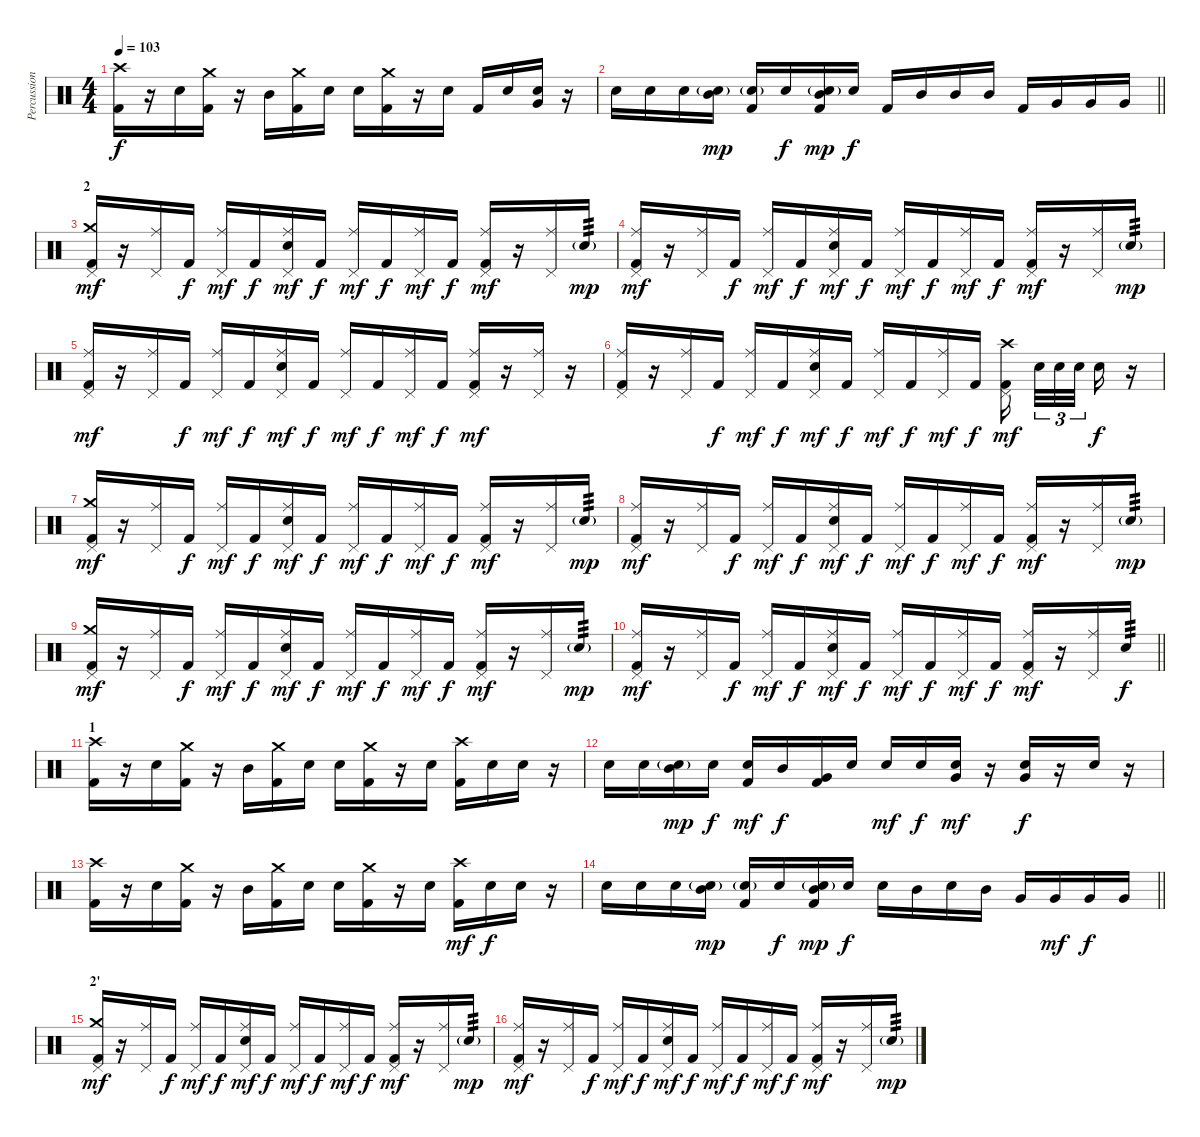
\track ("Percussion" "Percussion") {instrument percussion}
\staff {score}
\articulation defaults
\ts (4 4)
\tempo 103
\clef neutral
\ks c
("Crash high (hit)" "Kick (hit) 2").16{dy f} r.16 "Snare (hit) 2".16 ("Crash medium (hit)" "Kick (hit) 2").16 r.16 "Mid Tom (hit)".16 ("Crash medium (hit)" "Kick (hit) 2").16 "Snare (hit) 2".16 "Snare (hit) 2".16 ("Crash medium (hit)" "Kick (hit) 2").16 r.16 "Snare (hit) 2".16 "Kick (hit) 2".16 "Snare (hit) 2".16 ("Snare (hit) 2" "Very Low Tom (hit)").16 r.16 |
\barLineRight lightlight "Snare (hit) 2".16 "Snare (hit) 2".16 "Snare (hit) 2".16
("Mid Tom (hit)" "Snare (hit) 2"{g}).16{dy mp} ("Snare (hit) 2"{g} "Kick (hit) 2").16 "Snare (hit) 2".16{dy f} ("Mid Tom (hit)" "Snare (hit) 2"{g} "Kick (hit) 2").16{dy mp} "Snare (hit) 2".16{dy f} "Kick (hit) 2".16 "Mid Tom (hit)".16 "Mid Tom (hit)".16 "Mid Tom (hit)".16 "Kick (hit) 2".16 "Very Low Tom (hit)".16 "Very Low Tom (hit)".16 "Very Low Tom (hit)".16 |
\section ("" "2")
("Crash medium (hit)" "Pedal Hi-Hat (hit)" "Kick (hit) 2").16{dy mf} r.16 ("Ride (middle)" "Pedal Hi-Hat (hit)").16 "Kick (hit) 2".16{dy f} ("Ride (middle)" "Pedal Hi-Hat (hit)").16{dy mf} "Kick (hit) 2".16{dy f} ("Ride (middle)" "Pedal Hi-Hat (hit)" "Snare (hit) 2").16{dy mf} "Kick (hit) 2".16{dy f} ("Ride (middle)" "Pedal Hi-Hat (hit)").16{dy mf} "Kick (hit) 2".16{dy f} ("Ride (middle)" "Pedal Hi-Hat (hit)").16{dy mf} "Kick (hit) 2".16{dy f} ("Ride (middle)" "Pedal Hi-Hat (hit)" "Kick (hit) 2").16{dy mf} r.16 ("Ride (middle)" "Pedal Hi-Hat (hit)").16 "Snare (hit) 2"{g}.16{tp 3 dy mp} |
("Ride (middle)" "Pedal Hi-Hat (hit)" "Kick (hit) 2").16{dy mf} r.16 ("Ride (middle)" "Pedal Hi-Hat (hit)").16 "Kick (hit) 2".16{dy f} ("Ride (middle)" "Pedal Hi-Hat (hit)").16{dy mf} "Kick (hit) 2".16{dy f} ("Ride (middle)" "Pedal Hi-Hat (hit)" "Snare (hit) 2").16{dy mf} "Kick (hit) 2".16{dy f} ("Ride (middle)" "Pedal Hi-Hat (hit)").16{dy mf} "Kick (hit) 2".16{dy f} ("Ride (middle)" "Pedal Hi-Hat (hit)").16{dy mf} "Kick (hit) 2".16{dy f} ("Ride (middle)" "Pedal Hi-Hat (hit)" "Kick (hit) 2").16{dy mf} r.16 ("Ride (middle)" "Pedal Hi-Hat (hit)").16 "Snare (hit) 2"{g}.16{tp 3 dy mp} |
("Ride (middle)" "Pedal Hi-Hat (hit)" "Kick (hit) 2").16{dy mf} r.16 ("Ride (middle)" "Pedal Hi-Hat (hit)").16 "Kick (hit) 2".16{dy f} ("Ride (middle)" "Pedal Hi-Hat (hit)").16{dy mf} "Kick (hit) 2".16{dy f} ("Ride (middle)" "Pedal Hi-Hat (hit)" "Snare (hit) 2").16{dy mf} "Kick (hit) 2".16{dy f} ("Ride (middle)" "Pedal Hi-Hat (hit)").16{dy mf} "Kick (hit) 2".16{dy f} ("Ride (middle)" "Pedal Hi-Hat (hit)").16{dy mf} "Kick (hit) 2".16{dy f} ("Ride (middle)" "Pedal Hi-Hat (hit)" "Kick (hit) 2").16{dy mf} r.16 ("Ride (middle)" "Pedal Hi-Hat (hit)").16 r.16 |
("Ride (middle)" "Pedal Hi-Hat (hit)" "Kick (hit) 2").16 r.16 ("Ride (middle)" "Pedal Hi-Hat (hit)").16 "Kick (hit) 2".16{dy f} ("Ride (middle)" "Pedal Hi-Hat (hit)").16{dy mf} "Kick (hit) 2".16{dy f} ("Ride (middle)" "Pedal Hi-Hat (hit)" "Snare (hit) 2").16{dy mf} "Kick (hit) 2".16{dy f} ("Ride (middle)" "Pedal Hi-Hat (hit)").16{dy mf} "Kick (hit) 2".16{dy f} ("Ride (middle)" "Pedal Hi-Hat (hit)").16{dy mf} "Kick (hit) 2".16{dy f} ("Crash high (hit)" "Pedal Hi-Hat (hit)" "Kick (hit) 2").16{dy mf beam splitsecondary} "Snare (hit) 2".32{tu (3 2)} "Snare (hit) 2".32{tu (3 2)} "Snare (hit) 2".32{tu (3 2) beam splitsecondary} "Snare (hit) 2".16{dy f} r.16 |
("Crash medium (hit)" "Pedal Hi-Hat (hit)" "Kick (hit) 2").16{dy mf} r.16 ("Ride (middle)" "Pedal Hi-Hat (hit)").16 "Kick (hit) 2".16{dy f} ("Ride (middle)" "Pedal Hi-Hat (hit)").16{dy mf} "Kick (hit) 2".16{dy f} ("Ride (middle)" "Pedal Hi-Hat (hit)" "Snare (hit) 2").16{dy mf} "Kick (hit) 2".16{dy f} ("Ride (middle)" "Pedal Hi-Hat (hit)").16{dy mf} "Kick (hit) 2".16{dy f} ("Ride (middle)" "Pedal Hi-Hat (hit)").16{dy mf} "Kick (hit) 2".16{dy f} ("Ride (middle)" "Pedal Hi-Hat (hit)" "Kick (hit) 2").16{dy mf} r.16 ("Ride (middle)" "Pedal Hi-Hat (hit)").16 "Snare (hit) 2"{g}.16{tp 3 dy mp} |
("Ride (middle)" "Pedal Hi-Hat (hit)" "Kick (hit) 2").16{dy mf} r.16 ("Ride (middle)" "Pedal Hi-Hat (hit)").16 "Kick (hit) 2".16{dy f} ("Ride (middle)" "Pedal Hi-Hat (hit)").16{dy mf} "Kick (hit) 2".16{dy f} ("Ride (middle)" "Pedal Hi-Hat (hit)" "Snare (hit) 2").16{dy mf} "Kick (hit) 2".16{dy f} ("Ride (middle)" "Pedal Hi-Hat (hit)").16{dy mf} "Kick (hit) 2".16{dy f} ("Ride (middle)" "Pedal Hi-Hat (hit)").16{dy mf} "Kick (hit) 2".16{dy f} ("Ride (middle)" "Pedal Hi-Hat (hit)" "Kick (hit) 2").16{dy mf} r.16 ("Ride (middle)" "Pedal Hi-Hat (hit)").16 "Snare (hit) 2"{g}.16{tp 3 dy mp} |
("Crash medium (hit)" "Pedal Hi-Hat (hit)" "Kick (hit) 2").16{dy mf} r.16 ("Ride (middle)" "Pedal Hi-Hat (hit)").16 "Kick (hit) 2".16{dy f} ("Ride (middle)" "Pedal Hi-Hat (hit)").16{dy mf} "Kick (hit) 2".16{dy f} ("Ride (middle)" "Pedal Hi-Hat (hit)" "Snare (hit) 2").16{dy mf} "Kick (hit) 2".16{dy f} ("Ride (middle)" "Pedal Hi-Hat (hit)").16{dy mf} "Kick (hit) 2".16{dy f} ("Ride (middle)" "Pedal Hi-Hat (hit)").16{dy mf} "Kick (hit) 2".16{dy f} ("Ride (middle)" "Pedal Hi-Hat (hit)" "Kick (hit) 2").16{dy mf} r.16 ("Ride (middle)" "Pedal Hi-Hat (hit)").16 "Snare (hit) 2"{g}.16{tp 3 dy mp} |
\barLineRight lightlight
("Ride (middle)" "Pedal Hi-Hat (hit)" "Kick (hit) 2").16{dy mf} r.16 ("Ride (middle)" "Pedal Hi-Hat (hit)").16 "Kick (hit) 2".16{dy f} ("Ride (middle)" "Pedal Hi-Hat (hit)").16{dy mf} "Kick (hit) 2".16{dy f} ("Ride (middle)" "Pedal Hi-Hat (hit)" "Snare (hit) 2").16{dy mf} "Kick (hit) 2".16{dy f} ("Ride (middle)" "Pedal Hi-Hat (hit)").16{dy mf} "Kick (hit) 2".16{dy f} ("Ride (middle)" "Pedal Hi-Hat (hit)").16{dy mf} "Kick (hit) 2".16{dy f} ("Ride (middle)" "Pedal Hi-Hat (hit)" "Kick (hit) 2").16{dy mf} r.16 ("Ride (middle)" "Pedal Hi-Hat (hit)").16 "Snare (hit) 2".16{tp 3 dy f} |
\section ("" "1")
("Crash high (hit)" "Kick (hit) 2").16 r.16 "Snare (hit) 2".16 ("Crash medium (hit)" "Kick (hit) 2").16 r.16 "Mid Tom (hit)".16 ("Crash medium (hit)" "Kick (hit) 2").16 "Snare (hit) 2".16 "Snare (hit) 2".16 ("Crash medium (hit)" "Kick (hit) 2").16 r.16 "Snare (hit) 2".16 ("Crash high (hit)" "Kick (hit) 2").16 "Snare (hit) 2".16 "Snare (hit) 2".16 r.16 |
"Snare (hit) 2".16 "Snare (hit) 2".16 ("Mid Tom (hit)" "Snare (hit) 2"{g}).16{dy mp} "Snare (hit) 2".16{dy f} ("Snare (hit) 2" "Kick (hit) 2").16{dy mf} "Mid Tom (hit)".16{dy f} ("Very Low Tom (hit)" "Kick (hit) 2").16 "Snare (hit) 2".16 "Snare (hit) 2".16{dy mf} "Snare (hit) 2".16{dy f} ("Snare (hit) 2" "Very Low Tom (hit)").16{dy mf} r.16 ("Snare (hit) 2" "Very Low Tom (hit)").16{dy f} r.16 "Snare (hit) 2".16 r.16 |
("Crash high (hit)" "Kick (hit) 2").16 r.16 "Snare (hit) 2".16 ("Crash medium (hit)" "Kick (hit) 2").16 r.16 "Mid Tom (hit)".16 ("Crash medium (hit)" "Kick (hit) 2").16 "Snare (hit) 2".16 "Snare (hit) 2".16 ("Crash medium (hit)" "Kick (hit) 2").16 r.16 "Snare (hit) 2".16 ("Crash high (hit)" "Kick (hit) 2").16{dy mf} "Snare (hit) 2".16{dy f} "Snare (hit) 2".16 r.16 |
\barLineRight lightlight "Snare (hit) 2".16 "Snare (hit) 2".16 "Snare (hit) 2".16
("Mid Tom (hit)" "Snare (hit) 2"{g}).16{dy mp} ("Snare (hit) 2"{g} "Kick (hit) 2").16 "Snare (hit) 2".16{dy f} ("Mid Tom (hit)" "Snare (hit) 2"{g} "Kick (hit) 2").16{dy mp} "Snare (hit) 2".16{dy f} "Snare (hit) 2".16 "Mid Tom (hit)".16 "Snare (hit) 2".16 "Mid Tom (hit)".16 "Very Low Tom (hit)".16 "Very Low Tom (hit)".16{dy mf} "Very Low Tom (hit)".16{dy f} "Very Low Tom (hit)".16 |
\section ("" "2'")
("Crash medium (hit)" "Pedal Hi-Hat (hit)" "Kick (hit) 2").16{dy mf} r.16 ("Ride (middle)" "Pedal Hi-Hat (hit)").16 "Kick (hit) 2".16{dy f} ("Ride (middle)" "Pedal Hi-Hat (hit)").16{dy mf} "Kick (hit) 2".16{dy f} ("Ride (middle)" "Pedal Hi-Hat (hit)" "Snare (hit) 2").16{dy mf} "Kick (hit) 2".16{dy f} ("Ride (middle)" "Pedal Hi-Hat (hit)").16{dy mf} "Kick (hit) 2".16{dy f} ("Ride (middle)" "Pedal Hi-Hat (hit)").16{dy mf} "Kick (hit) 2".16{dy f} ("Ride (middle)" "Pedal Hi-Hat (hit)" "Kick (hit) 2").16{dy mf} r.16 ("Ride (middle)" "Pedal Hi-Hat (hit)").16 "Snare (hit) 2"{g}.16{tp 3 dy mp} |
("Ride (middle)" "Pedal Hi-Hat (hit)" "Kick (hit) 2").16{dy mf} r.16 ("Ride (middle)" "Pedal Hi-Hat (hit)").16 "Kick (hit) 2".16{dy f} ("Ride (middle)" "Pedal Hi-Hat (hit)").16{dy mf} "Kick (hit) 2".16{dy f} ("Ride (middle)" "Pedal Hi-Hat (hit)" "Snare (hit) 2").16{dy mf} "Kick (hit) 2".16{dy f} ("Ride (middle)" "Pedal Hi-Hat (hit)").16{dy mf} "Kick (hit) 2".16{dy f} ("Ride (middle)" "Pedal Hi-Hat (hit)").16{dy mf} "Kick (hit) 2".16{dy f} ("Ride (middle)" "Pedal Hi-Hat (hit)" "Kick (hit) 2").16{dy mf} r.16 ("Ride (middle)" "Pedal Hi-Hat (hit)").16 "Snare (hit) 2"{g}.16{tp 3 dy mp}
